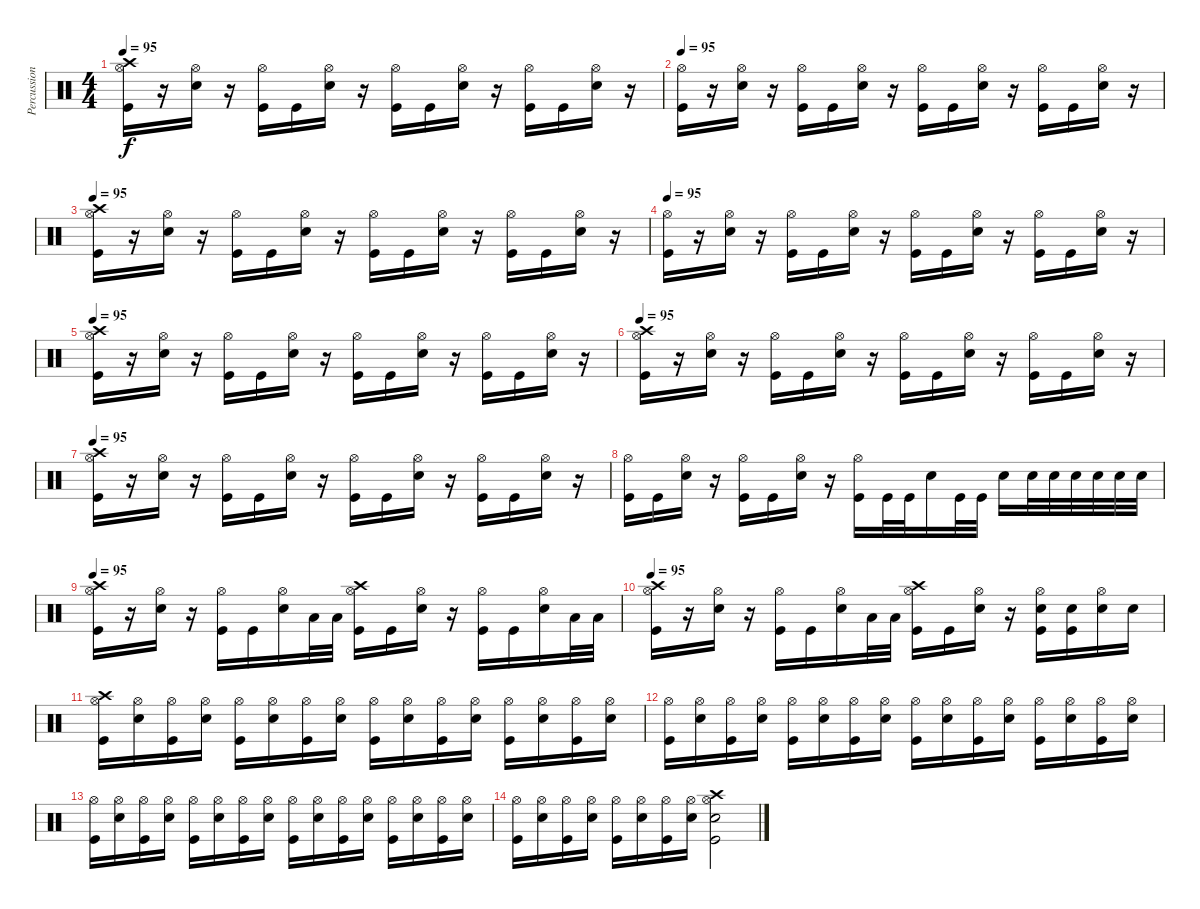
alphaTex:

\track ("Percussion" "Percussion") {instrument percussion}
\staff {score}
\articulation defaults
\ts (4 4)
\tempo 95
\clef neutral
\ks c
("Hi-Hat (open)" "Crash high (hit)" "Kick (hit)").16{dy f} r.16 ("Hi-Hat (open)" "Snare (hit) 2").16 r.16 ("Hi-Hat (open)" "Kick (hit)").16 "Kick (hit)".16 ("Hi-Hat (open)" "Snare (hit) 2").16 r.16 ("Hi-Hat (open)" "Kick (hit)").16 "Kick (hit)".16 ("Hi-Hat (open)" "Snare (hit) 2").16 r.16 ("Hi-Hat (open)" "Kick (hit)").16 "Kick (hit)".16 ("Hi-Hat (open)" "Snare (hit) 2").16 r.16 |
\tempo 95
("Hi-Hat (open)" "Kick (hit)").16 r.16 ("Hi-Hat (open)" "Snare (hit) 2").16 r.16 ("Hi-Hat (open)" "Kick (hit)").16 "Kick (hit)".16 ("Hi-Hat (open)" "Snare (hit) 2").16 r.16 ("Hi-Hat (open)" "Kick (hit)").16 "Kick (hit)".16 ("Hi-Hat (open)" "Snare (hit) 2").16 r.16 ("Hi-Hat (open)" "Kick (hit)").16 "Kick (hit)".16 ("Hi-Hat (open)" "Snare (hit) 2").16 r.16 |
\tempo 95
("Hi-Hat (open)" "Crash high (hit)" "Kick (hit)").16 r.16 ("Hi-Hat (open)" "Snare (hit) 2").16 r.16 ("Hi-Hat (open)" "Kick (hit)").16 "Kick (hit)".16 ("Hi-Hat (open)" "Snare (hit) 2").16 r.16 ("Hi-Hat (open)" "Kick (hit)").16 "Kick (hit)".16 ("Hi-Hat (open)" "Snare (hit) 2").16 r.16 ("Hi-Hat (open)" "Kick (hit)").16 "Kick (hit)".16 ("Hi-Hat (open)" "Snare (hit) 2").16 r.16 |
\tempo 95
("Hi-Hat (open)" "Kick (hit)").16 r.16 ("Hi-Hat (open)" "Snare (hit) 2").16 r.16 ("Hi-Hat (open)" "Kick (hit)").16 "Kick (hit)".16 ("Hi-Hat (open)" "Snare (hit) 2").16 r.16 ("Hi-Hat (open)" "Kick (hit)").16 "Kick (hit)".16 ("Hi-Hat (open)" "Snare (hit) 2").16 r.16 ("Hi-Hat (open)" "Kick (hit)").16 "Kick (hit)".16 ("Hi-Hat (open)" "Snare (hit) 2").16 r.16 |
\tempo 95
("Hi-Hat (open)" "Crash high (hit)" "Kick (hit)").16 r.16 ("Hi-Hat (open)" "Snare (hit) 2").16 r.16 ("Hi-Hat (open)" "Kick (hit)").16 "Kick (hit)".16 ("Hi-Hat (open)" "Snare (hit) 2").16 r.16 ("Hi-Hat (open)" "Kick (hit)").16 "Kick (hit)".16 ("Hi-Hat (open)" "Snare (hit) 2").16 r.16 ("Hi-Hat (open)" "Kick (hit)").16 "Kick (hit)".16 ("Hi-Hat (open)" "Snare (hit) 2").16 r.16 |
\tempo 95
("Hi-Hat (open)" "Crash high (hit)" "Kick (hit)").16 r.16 ("Hi-Hat (open)" "Snare (hit) 2").16 r.16 ("Hi-Hat (open)" "Kick (hit)").16 "Kick (hit)".16 ("Hi-Hat (open)" "Snare (hit) 2").16 r.16 ("Hi-Hat (open)" "Kick (hit)").16 "Kick (hit)".16 ("Hi-Hat (open)" "Snare (hit) 2").16 r.16 ("Hi-Hat (open)" "Kick (hit)").16 "Kick (hit)".16 ("Hi-Hat (open)" "Snare (hit) 2").16 r.16 |
\tempo 95
("Hi-Hat (open)" "Crash high (hit)" "Kick (hit)").16 r.16 ("Hi-Hat (open)" "Snare (hit) 2").16 r.16 ("Hi-Hat (open)" "Kick (hit)").16 "Kick (hit)".16 ("Hi-Hat (open)" "Snare (hit) 2").16 r.16 ("Hi-Hat (open)" "Kick (hit)").16 "Kick (hit)".16 ("Hi-Hat (open)" "Snare (hit) 2").16 r.16 ("Hi-Hat (open)" "Kick (hit)").16 "Kick (hit)".16 ("Hi-Hat (open)" "Snare (hit) 2").16 r.16 |
("Hi-Hat (open)" "Kick (hit)").16 "Kick (hit)".16 ("Hi-Hat (open)" "Snare (hit) 2").16 r.16 ("Hi-Hat (open)" "Kick (hit)").16 "Kick (hit)".16 ("Hi-Hat (open)" "Snare (hit) 2").16 r.16 ("Hi-Hat (open)" "Kick (hit)").16 "Kick (hit)".32 "Kick (hit)".32 "Snare (hit) 2".16 "Kick (hit)".32 "Kick (hit)".32 "Snare (hit) 2".16 "Snare (hit) 2".32 "Snare (hit) 2".32 "Snare (hit) 2".32 "Snare (hit) 2".32 "Snare (hit) 2".32 "Snare (hit) 2".32 |
\tempo 95
("Hi-Hat (open)" "Crash high (hit)" "Kick (hit)").16 r.16 ("Hi-Hat (open)" "Snare (hit) 2").16 r.16 ("Hi-Hat (open)" "Kick (hit)").16 "Kick (hit)".16 ("Hi-Hat (open)" "Snare (hit) 2").16 "Low Tom (hit)".32 "Low Tom (hit)".32 ("Hi-Hat (open)" "Crash high (hit)" "Kick (hit)").16 "Kick (hit)".16 ("Hi-Hat (open)" "Snare (hit) 2").16 r.16 ("Hi-Hat (open)" "Kick (hit)").16 "Kick (hit)".16 ("Hi-Hat (open)" "Snare (hit) 2").16 "Low Tom (hit)".32 "Low Tom (hit)".32 |
\tempo 95
("Hi-Hat (open)" "Crash high (hit)" "Kick (hit)").16 r.16 ("Hi-Hat (open)" "Snare (hit) 2").16 r.16 ("Hi-Hat (open)" "Kick (hit)").16 "Kick (hit)".16 ("Hi-Hat (open)" "Snare (hit) 2").16 "Low Tom (hit)".32 "Low Tom (hit)".32 ("Hi-Hat (open)" "Crash high (hit)" "Kick (hit)").16 "Kick (hit)".16 ("Hi-Hat (open)" "Snare (hit) 2").16 r.16 ("Hi-Hat (open)" "Snare (hit) 2" "Kick (hit)").16 ("Snare (hit) 2" "Kick (hit)").16 ("Hi-Hat (open)" "Snare (hit) 2").16 "Snare (hit) 2".16 |
("Hi-Hat (open)" "Crash high (hit)" "Kick (hit)").16 ("Hi-Hat (open)" "Snare (hit) 2").16 ("Hi-Hat (open)" "Kick (hit)").16 ("Hi-Hat (open)" "Snare (hit) 2").16 ("Hi-Hat (open)" "Kick (hit)").16 ("Hi-Hat (open)" "Snare (hit) 2").16 ("Hi-Hat (open)" "Kick (hit)").16 ("Hi-Hat (open)" "Snare (hit) 2").16 ("Hi-Hat (open)" "Kick (hit)").16 ("Hi-Hat (open)" "Snare (hit) 2").16 ("Hi-Hat (open)" "Kick (hit)").16 ("Hi-Hat (open)" "Snare (hit) 2").16 ("Hi-Hat (open)" "Kick (hit)").16 ("Hi-Hat (open)" "Snare (hit) 2").16 ("Hi-Hat (open)" "Kick (hit)").16 ("Hi-Hat (open)" "Snare (hit) 2").16 |
("Hi-Hat (open)" "Kick (hit)").16 ("Hi-Hat (open)" "Snare (hit) 2").16 ("Hi-Hat (open)" "Kick (hit)").16 ("Hi-Hat (open)" "Snare (hit) 2").16 ("Hi-Hat (open)" "Kick (hit)").16 ("Hi-Hat (open)" "Snare (hit) 2").16 ("Hi-Hat (open)" "Kick (hit)").16 ("Hi-Hat (open)" "Snare (hit) 2").16 ("Hi-Hat (open)" "Kick (hit)").16 ("Hi-Hat (open)" "Snare (hit) 2").16 ("Hi-Hat (open)" "Kick (hit)").16 ("Hi-Hat (open)" "Snare (hit) 2").16 ("Hi-Hat (open)" "Kick (hit)").16 ("Hi-Hat (open)" "Snare (hit) 2").16 ("Hi-Hat (open)" "Kick (hit)").16 ("Hi-Hat (open)" "Snare (hit) 2").16 |
("Hi-Hat (open)" "Kick (hit)").16 ("Hi-Hat (open)" "Snare (hit) 2").16 ("Hi-Hat (open)" "Kick (hit)").16 ("Hi-Hat (open)" "Snare (hit) 2").16 ("Hi-Hat (open)" "Kick (hit)").16 ("Hi-Hat (open)" "Snare (hit) 2").16 ("Hi-Hat (open)" "Kick (hit)").16 ("Hi-Hat (open)" "Snare (hit) 2").16 ("Hi-Hat (open)" "Kick (hit)").16 ("Hi-Hat (open)" "Snare (hit) 2").16 ("Hi-Hat (open)" "Kick (hit)").16 ("Hi-Hat (open)" "Snare (hit) 2").16 ("Hi-Hat (open)" "Kick (hit)").16 ("Hi-Hat (open)" "Snare (hit) 2").16 ("Hi-Hat (open)" "Kick (hit)").16 ("Hi-Hat (open)" "Snare (hit) 2").16 |
("Hi-Hat (open)" "Kick (hit)").16 ("Hi-Hat (open)" "Snare (hit) 2").16 ("Hi-Hat (open)" "Kick (hit)").16 ("Hi-Hat (open)" "Snare (hit) 2").16 ("Hi-Hat (open)" "Kick (hit)").16 ("Hi-Hat (open)" "Snare (hit) 2").16 ("Hi-Hat (open)" "Kick (hit)").16 ("Hi-Hat (open)" "Snare (hit) 2").16 ("Hi-Hat (open)" "Crash high (hit)" "Snare (hit) 2" "Kick (hit)").2
